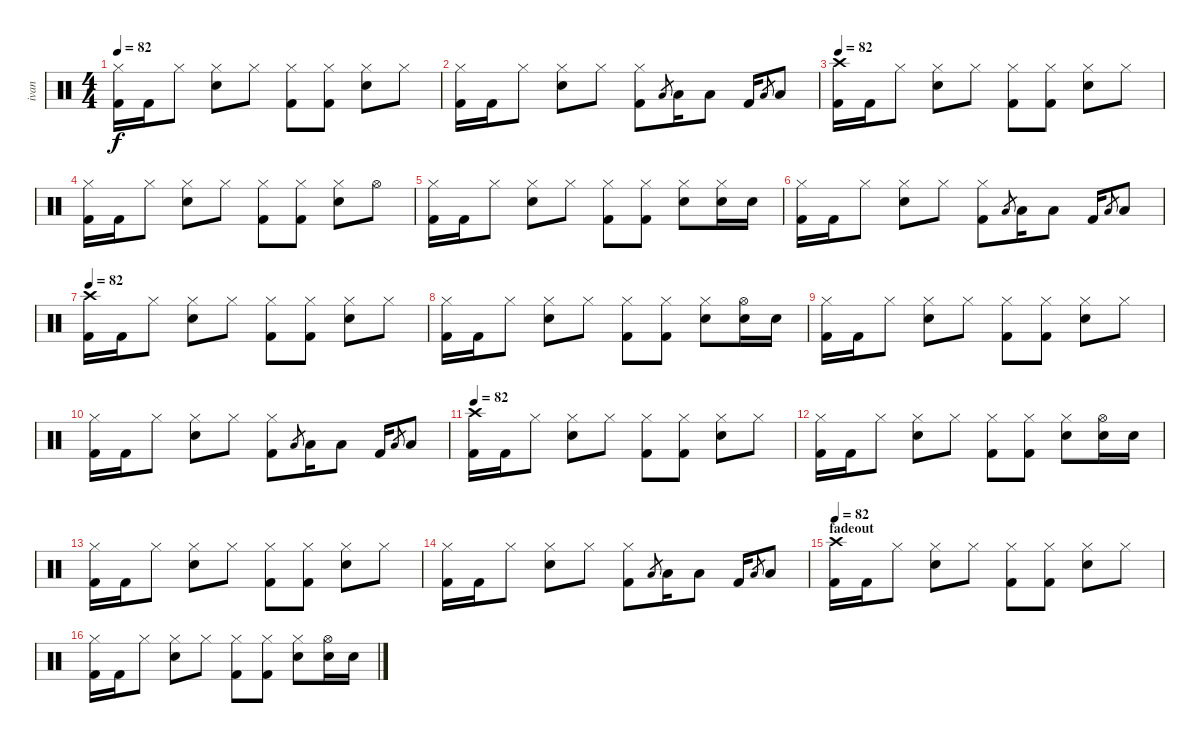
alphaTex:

\track ("ivan" "ivan") {instrument percussion}
\staff {score}
\articulation defaults
\ts (4 4)
\tempo 82
\clef neutral
\ks c
("Hi-Hat (closed)" "Kick (hit) 2").16{dy f} "Kick (hit) 2".16 "Hi-Hat (closed)".8 ("Hi-Hat (closed)" "Electric Snare (hit)").8 "Hi-Hat (closed)".8 ("Hi-Hat (closed)" "Kick (hit) 2").8 ("Hi-Hat (closed)" "Kick (hit) 2").8 ("Hi-Hat (closed)" "Electric Snare (hit)").8 "Hi-Hat (closed)".8 |
("Hi-Hat (closed)" "Kick (hit) 2").16 "Kick (hit) 2".16 "Hi-Hat (closed)".8 ("Hi-Hat (closed)" "Electric Snare (hit)").8 "Hi-Hat (closed)".8 ("Hi-Hat (closed)" "Kick (hit) 2").8 "Low Tom (hit)".8{gr} "Low Tom (hit)".16 "Low Tom (hit)".8 "Kick (hit) 2".16 "Low Tom (hit)".8{gr} "Low Tom (hit)".8 |
\tempo 82
("Crash high (hit)" "Kick (hit) 2").16 "Kick (hit) 2".16 "Hi-Hat (closed)".8 ("Hi-Hat (closed)" "Electric Snare (hit)").8 "Hi-Hat (closed)".8 ("Hi-Hat (closed)" "Kick (hit) 2").8 ("Hi-Hat (closed)" "Kick (hit) 2").8 ("Hi-Hat (closed)" "Electric Snare (hit)").8 "Hi-Hat (closed)".8 |
("Hi-Hat (closed)" "Kick (hit) 2").16 "Kick (hit) 2".16 "Hi-Hat (closed)".8 ("Hi-Hat (closed)" "Electric Snare (hit)").8 "Hi-Hat (closed)".8 ("Hi-Hat (closed)" "Kick (hit) 2").8 ("Hi-Hat (closed)" "Kick (hit) 2").8 ("Hi-Hat (closed)" "Electric Snare (hit)").8 "Hi-Hat (open)".8 |
("Hi-Hat (closed)" "Kick (hit) 2").16 "Kick (hit) 2".16 "Hi-Hat (closed)".8 ("Hi-Hat (closed)" "Electric Snare (hit)").8 "Hi-Hat (closed)".8 ("Hi-Hat (closed)" "Kick (hit) 2").8 ("Hi-Hat (closed)" "Kick (hit) 2").8 ("Hi-Hat (closed)" "Electric Snare (hit)").8 ("Hi-Hat (closed)" "Electric Snare (hit)").16 "Electric Snare (hit)".16 |
("Hi-Hat (closed)" "Kick (hit) 2").16 "Kick (hit) 2".16 "Hi-Hat (closed)".8 ("Hi-Hat (closed)" "Electric Snare (hit)").8 "Hi-Hat (closed)".8 ("Hi-Hat (closed)" "Kick (hit) 2").8 "Low Tom (hit)".8{gr} "Low Tom (hit)".16 "Low Tom (hit)".8 "Kick (hit) 2".16 "Low Tom (hit)".8{gr} "Low Tom (hit)".8 |
\tempo 82
("Crash high (hit)" "Kick (hit) 2").16 "Kick (hit) 2".16 "Hi-Hat (closed)".8 ("Hi-Hat (closed)" "Electric Snare (hit)").8 "Hi-Hat (closed)".8 ("Hi-Hat (closed)" "Kick (hit) 2").8 ("Hi-Hat (closed)" "Kick (hit) 2").8 ("Hi-Hat (closed)" "Electric Snare (hit)").8 "Hi-Hat (closed)".8 |
("Hi-Hat (closed)" "Kick (hit) 2").16 "Kick (hit) 2".16 "Hi-Hat (closed)".8 ("Hi-Hat (closed)" "Electric Snare (hit)").8 "Hi-Hat (closed)".8 ("Hi-Hat (closed)" "Kick (hit) 2").8 ("Hi-Hat (closed)" "Kick (hit) 2").8 ("Hi-Hat (closed)" "Electric Snare (hit)").8 ("Hi-Hat (open)" "Electric Snare (hit)").16 "Electric Snare (hit)".16 |
("Hi-Hat (closed)" "Kick (hit) 2").16 "Kick (hit) 2".16 "Hi-Hat (closed)".8 ("Hi-Hat (closed)" "Electric Snare (hit)").8 "Hi-Hat (closed)".8 ("Hi-Hat (closed)" "Kick (hit) 2").8 ("Hi-Hat (closed)" "Kick (hit) 2").8 ("Hi-Hat (closed)" "Electric Snare (hit)").8 "Hi-Hat (closed)".8 |
("Hi-Hat (closed)" "Kick (hit) 2").16 "Kick (hit) 2".16 "Hi-Hat (closed)".8 ("Hi-Hat (closed)" "Electric Snare (hit)").8 "Hi-Hat (closed)".8 ("Hi-Hat (closed)" "Kick (hit) 2").8 "Low Tom (hit)".8{gr} "Low Tom (hit)".16 "Low Tom (hit)".8 "Kick (hit) 2".16 "Low Tom (hit)".8{gr} "Low Tom (hit)".8 |
\tempo 82
("Crash high (hit)" "Kick (hit) 2").16 "Kick (hit) 2".16 "Hi-Hat (closed)".8 ("Hi-Hat (closed)" "Electric Snare (hit)").8 "Hi-Hat (closed)".8 ("Hi-Hat (closed)" "Kick (hit) 2").8 ("Hi-Hat (closed)" "Kick (hit) 2").8 ("Hi-Hat (closed)" "Electric Snare (hit)").8 "Hi-Hat (closed)".8 |
("Hi-Hat (closed)" "Kick (hit) 2").16 "Kick (hit) 2".16 "Hi-Hat (closed)".8 ("Hi-Hat (closed)" "Electric Snare (hit)").8 "Hi-Hat (closed)".8 ("Hi-Hat (closed)" "Kick (hit) 2").8 ("Hi-Hat (closed)" "Kick (hit) 2").8 ("Hi-Hat (closed)" "Electric Snare (hit)").8 ("Hi-Hat (open)" "Electric Snare (hit)").16 "Electric Snare (hit)".16 |
("Hi-Hat (closed)" "Kick (hit) 2").16 "Kick (hit) 2".16 "Hi-Hat (closed)".8 ("Hi-Hat (closed)" "Electric Snare (hit)").8 "Hi-Hat (closed)".8 ("Hi-Hat (closed)" "Kick (hit) 2").8 ("Hi-Hat (closed)" "Kick (hit) 2").8 ("Hi-Hat (closed)" "Electric Snare (hit)").8 "Hi-Hat (closed)".8 |
("Hi-Hat (closed)" "Kick (hit) 2").16 "Kick (hit) 2".16 "Hi-Hat (closed)".8 ("Hi-Hat (closed)" "Electric Snare (hit)").8 "Hi-Hat (closed)".8 ("Hi-Hat (closed)" "Kick (hit) 2").8 "Low Tom (hit)".8{gr} "Low Tom (hit)".16 "Low Tom (hit)".8 "Kick (hit) 2".16 "Low Tom (hit)".8{gr} "Low Tom (hit)".8 |
\section ("" "fadeout")
\tempo 82
("Crash high (hit)" "Kick (hit) 2").16 "Kick (hit) 2".16 "Hi-Hat (closed)".8 ("Hi-Hat (closed)" "Electric Snare (hit)").8 "Hi-Hat (closed)".8 ("Hi-Hat (closed)" "Kick (hit) 2").8 ("Hi-Hat (closed)" "Kick (hit) 2").8 ("Hi-Hat (closed)" "Electric Snare (hit)").8 "Hi-Hat (closed)".8 |
("Hi-Hat (closed)" "Kick (hit) 2").16 "Kick (hit) 2".16 "Hi-Hat (closed)".8 ("Hi-Hat (closed)" "Electric Snare (hit)").8 "Hi-Hat (closed)".8 ("Hi-Hat (closed)" "Kick (hit) 2").8 ("Hi-Hat (closed)" "Kick (hit) 2").8 ("Hi-Hat (closed)" "Electric Snare (hit)").8 ("Hi-Hat (open)" "Electric Snare (hit)").16 "Electric Snare (hit)".16
